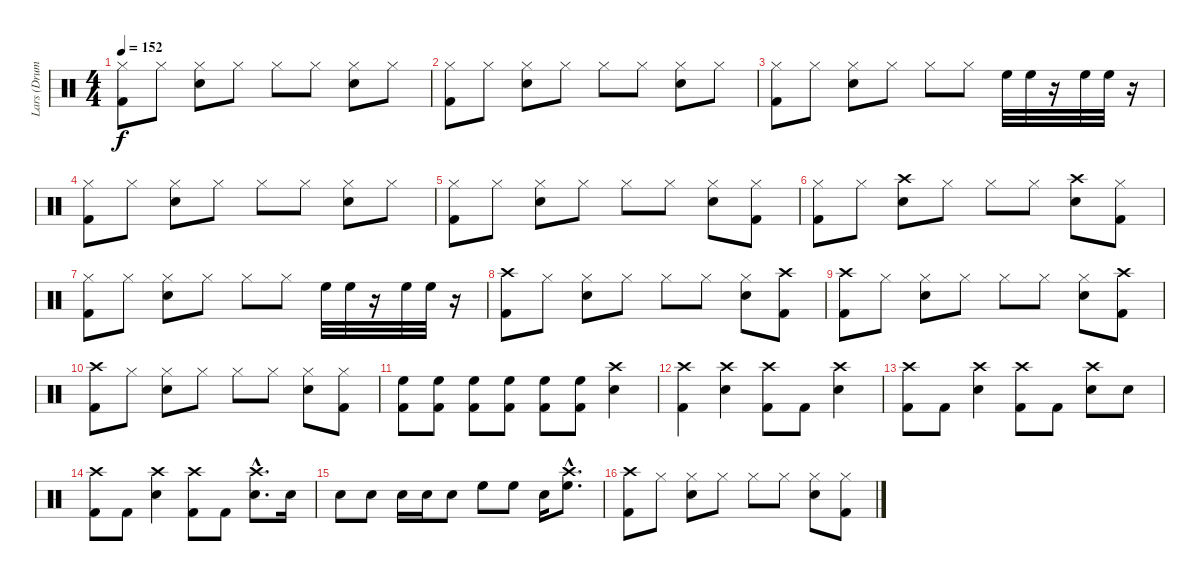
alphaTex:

\track ("Lars (Drums)" "Lars (Drum") {instrument percussion}
\staff {score}
\articulation defaults
\ts (4 4)
\tempo 152
\clef neutral
\ks c
("Hi-Hat (closed)" "Kick (hit) 2").8{dy f} "Hi-Hat (closed)".8 ("Hi-Hat (closed)" "Snare (hit) 2").8 "Hi-Hat (closed)".8 "Hi-Hat (closed)".8 "Hi-Hat (closed)".8 ("Hi-Hat (closed)" "Snare (hit) 2").8 "Hi-Hat (closed)".8 |
("Hi-Hat (closed)" "Kick (hit) 2").8 "Hi-Hat (closed)".8 ("Hi-Hat (closed)" "Snare (hit) 2").8 "Hi-Hat (closed)".8 "Hi-Hat (closed)".8 "Hi-Hat (closed)".8 ("Hi-Hat (closed)" "Snare (hit) 2").8 "Hi-Hat (closed)".8 |
("Hi-Hat (closed)" "Kick (hit) 2").8 "Hi-Hat (closed)".8 ("Hi-Hat (closed)" "Snare (hit) 2").8 "Hi-Hat (closed)".8 "Hi-Hat (closed)".8 "Hi-Hat (closed)".8 "High Floor Tom (hit)".32 "High Floor Tom (hit)".32 r.16 "High Floor Tom (hit)".32 "High Floor Tom (hit)".32 r.16 |
("Hi-Hat (closed)" "Kick (hit) 2").8 "Hi-Hat (closed)".8 ("Hi-Hat (closed)" "Snare (hit) 2").8 "Hi-Hat (closed)".8 "Hi-Hat (closed)".8 "Hi-Hat (closed)".8 ("Hi-Hat (closed)" "Snare (hit) 2").8 "Hi-Hat (closed)".8 |
("Hi-Hat (closed)" "Kick (hit) 2").8 "Hi-Hat (closed)".8 ("Hi-Hat (closed)" "Snare (hit) 2").8 "Hi-Hat (closed)".8 "Hi-Hat (closed)".8 "Hi-Hat (closed)".8 ("Hi-Hat (closed)" "Snare (hit) 2").8 ("Hi-Hat (closed)" "Kick (hit) 2").8 |
("Hi-Hat (closed)" "Kick (hit) 2").8 "Hi-Hat (closed)".8 ("Crash high (hit)" "Snare (hit) 2").8 "Hi-Hat (closed)".8 "Hi-Hat (closed)".8 "Hi-Hat (closed)".8 ("Crash high (hit)" "Snare (hit) 2").8 ("Hi-Hat (closed)" "Kick (hit) 2").8 |
("Hi-Hat (closed)" "Kick (hit) 2").8 "Hi-Hat (closed)".8 ("Hi-Hat (closed)" "Snare (hit) 2").8 "Hi-Hat (closed)".8 "Hi-Hat (closed)".8 "Hi-Hat (closed)".8 "High Floor Tom (hit)".32 "High Floor Tom (hit)".32 r.16 "High Floor Tom (hit)".32 "High Floor Tom (hit)".32 r.16 |
("Crash high (hit)" "Kick (hit) 2").8 "Hi-Hat (closed)".8 ("Hi-Hat (closed)" "Snare (hit) 2").8 "Hi-Hat (closed)".8 "Hi-Hat (closed)".8 "Hi-Hat (closed)".8 ("Hi-Hat (closed)" "Snare (hit) 2").8 ("Crash high (hit)" "Kick (hit) 2").8 |
("Crash high (hit)" "Kick (hit) 2").8 "Hi-Hat (closed)".8 ("Hi-Hat (closed)" "Snare (hit) 2").8 "Hi-Hat (closed)".8 "Hi-Hat (closed)".8 "Hi-Hat (closed)".8 ("Hi-Hat (closed)" "Snare (hit) 2").8 ("Crash high (hit)" "Kick (hit) 2").8 |
("Crash high (hit)" "Kick (hit) 2").8 "Hi-Hat (closed)".8 ("Hi-Hat (closed)" "Snare (hit) 2").8 "Hi-Hat (closed)".8 "Hi-Hat (closed)".8 "Hi-Hat (closed)".8 ("Hi-Hat (closed)" "Snare (hit) 2").8 ("Hi-Hat (closed)" "Kick (hit) 2").8 |
("Kick (hit) 2" "High Floor Tom (hit)").8 ("Kick (hit) 2" "High Floor Tom (hit)").8 ("Kick (hit) 2" "High Floor Tom (hit)").8 ("Kick (hit) 2" "High Floor Tom (hit)").8 ("Kick (hit) 2" "High Floor Tom (hit)").8 ("Kick (hit) 2" "High Floor Tom (hit)").8 ("Crash high (hit)" "Snare (hit) 2").4 |
("Crash high (hit)" "Kick (hit) 2").4 ("Crash high (hit)" "Snare (hit) 2").4 ("Crash high (hit)" "Kick (hit) 2").8 "Kick (hit) 2".8 ("Crash high (hit)" "Snare (hit) 2").4 |
("Crash high (hit)" "Kick (hit) 2").8 "Kick (hit) 2".8 ("Crash high (hit)" "Snare (hit) 2").4 ("Crash high (hit)" "Kick (hit) 2").8 "Kick (hit) 2".8 ("Crash high (hit)" "Snare (hit) 2").8 "Snare (hit) 2".8 |
("Crash high (hit)" "Kick (hit) 2").8 "Kick (hit) 2".8 ("Crash high (hit)" "Snare (hit) 2").4 ("Crash high (hit)" "Kick (hit) 2").8 "Kick (hit) 2".8 ("Crash high (hit)"{hac} "Snare (hit) 2"{hac}).8{d} "Snare (hit) 2".16 |
"Snare (hit) 2".8 "Snare (hit) 2".8 "Snare (hit) 2".16 "Snare (hit) 2".16 "Snare (hit) 2".8 "High Floor Tom (hit)".8 "High Floor Tom (hit)".8 "Snare (hit) 2".16 ("High Floor Tom (hit)"{hac} "Crash high (hit)"{hac}).8{d} |
("Crash high (hit)" "Kick (hit) 2").8 "Hi-Hat (closed)".8 ("Hi-Hat (closed)" "Snare (hit) 2").8 "Hi-Hat (closed)".8 "Hi-Hat (closed)".8 "Hi-Hat (closed)".8 ("Hi-Hat (closed)" "Snare (hit) 2").8 ("Hi-Hat (closed)" "Kick (hit) 2").8
